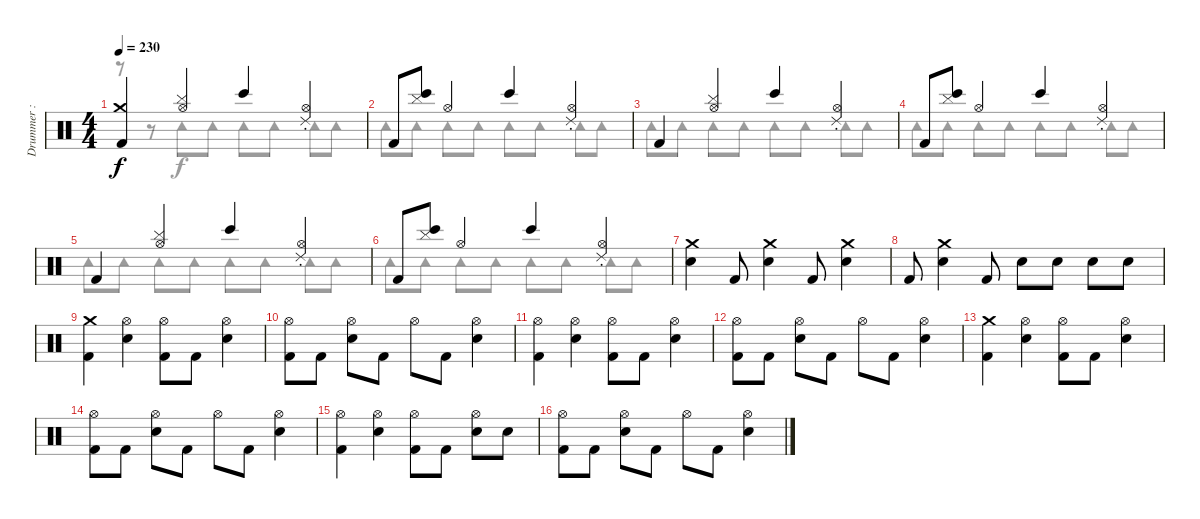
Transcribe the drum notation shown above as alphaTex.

\track ("Drummer : Tainaka Ritsu - Swan" "Drummer : ") {instrument percussion}
\staff {score}
\articulation defaults
\voice
\ts (4 4)
\tempo 230
\clef neutral
\ks c
("Crash medium (hit)" "Kick (hit) 2").4{dy f} ("Hi-Hat (open)" "Cymbal (hit)").4 "Bongo High (hit)".4 ("Hi-Hat (open)" "Ride (choke) 2").4 |
"Kick (hit) 2".8 ("Bongo High (hit)" "Cymbal (hit)").8 "Hi-Hat (open)".4 "Bongo High (hit)".4 ("Hi-Hat (open)" "Ride (choke) 2").4 |
"Kick (hit) 2".4 ("Hi-Hat (open)" "Cymbal (hit)").4 "Bongo High (hit)".4 ("Hi-Hat (open)" "Ride (choke) 2").4 |
"Kick (hit) 2".8 ("Bongo High (hit)" "Cymbal (hit)").8 "Hi-Hat (open)".4 "Bongo High (hit)".4 ("Hi-Hat (open)" "Ride (choke) 2").4 |
"Kick (hit) 2".4 ("Hi-Hat (open)" "Cymbal (hit)").4 "Bongo High (hit)".4 ("Hi-Hat (open)" "Ride (choke) 2").4 |
"Kick (hit) 2".8 ("Bongo High (hit)" "Cymbal (hit)").8 "Hi-Hat (open)".4 "Bongo High (hit)".4 ("Hi-Hat (open)" "Ride (choke) 2").4 |
("Crash medium (hit)" "Electric Snare (hit)").4 "Kick (hit) 2".8 ("Crash medium (hit)" "Electric Snare (hit)").4 "Kick (hit) 2".8 ("Crash medium (hit)" "Electric Snare (hit)").4 |
"Kick (hit) 2".8 ("Crash medium (hit)" "Electric Snare (hit)").4 "Kick (hit) 2".8 "Electric Snare (hit)".8 "Electric Snare (hit)".8 "Electric Snare (hit)".8 "Electric Snare (hit)".8 |
("Crash medium (hit)" "Kick (hit) 2").4 ("Hi-Hat (open)" "Electric Snare (hit)").4 ("Hi-Hat (open)" "Kick (hit) 2").8 "Kick (hit) 2".8 ("Hi-Hat (open)" "Electric Snare (hit)").4 |
("Hi-Hat (open)" "Kick (hit) 2").8 "Kick (hit) 2".8 ("Hi-Hat (open)" "Electric Snare (hit)").8 "Kick (hit) 2".8 "Hi-Hat (open)".8 "Kick (hit) 2".8 ("Hi-Hat (open)" "Electric Snare (hit)").4 |
("Hi-Hat (open)" "Kick (hit) 2").4 ("Hi-Hat (open)" "Electric Snare (hit)").4 ("Hi-Hat (open)" "Kick (hit) 2").8 "Kick (hit) 2".8 ("Hi-Hat (open)" "Electric Snare (hit)").4 |
("Hi-Hat (open)" "Kick (hit) 2").8 "Kick (hit) 2".8 ("Hi-Hat (open)" "Electric Snare (hit)").8 "Kick (hit) 2".8 "Hi-Hat (open)".8 "Kick (hit) 2".8 ("Hi-Hat (open)" "Electric Snare (hit)").4 |
("Crash medium (hit)" "Kick (hit) 2").4 ("Hi-Hat (open)" "Electric Snare (hit)").4 ("Hi-Hat (open)" "Kick (hit) 2").8 "Kick (hit) 2".8 ("Hi-Hat (open)" "Electric Snare (hit)").4 |
("Hi-Hat (open)" "Kick (hit) 2").8 "Kick (hit) 2".8 ("Hi-Hat (open)" "Electric Snare (hit)").8 "Kick (hit) 2".8 "Hi-Hat (open)".8 "Kick (hit) 2".8 ("Hi-Hat (open)" "Electric Snare (hit)").4 |
("Hi-Hat (open)" "Kick (hit) 2").4 ("Hi-Hat (open)" "Electric Snare (hit)").4 ("Hi-Hat (open)" "Kick (hit) 2").8 "Kick (hit) 2".8 ("Hi-Hat (open)" "Electric Snare (hit)").8 "Electric Snare (hit)".8 |
("Hi-Hat (open)" "Kick (hit) 2").8 "Kick (hit) 2".8 ("Hi-Hat (open)" "Electric Snare (hit)").8 "Kick (hit) 2".8 "Hi-Hat (open)".8 "Kick (hit) 2".8 ("Hi-Hat (open)" "Electric Snare (hit)").4
\voice
\clef neutral
\ottava regular
\simile none
\ks c
r.8{dy f} r.8 "Tambourine (hit)".8 "Tambourine (hit)".8 "Tambourine (hit)".8 "Tambourine (hit)".8 "Tambourine (hit)".8 "Tambourine (hit)".8 |
"Tambourine (hit)".8 "Tambourine (hit)".8 "Tambourine (hit)".8 "Tambourine (hit)".8 "Tambourine (hit)".8 "Tambourine (hit)".8 "Tambourine (hit)".8 "Tambourine (hit)".8 |
"Tambourine (hit)".8 "Tambourine (hit)".8 "Tambourine (hit)".8 "Tambourine (hit)".8 "Tambourine (hit)".8 "Tambourine (hit)".8 "Tambourine (hit)".8 "Tambourine (hit)".8 |
"Tambourine (hit)".8 "Tambourine (hit)".8 "Tambourine (hit)".8 "Tambourine (hit)".8 "Tambourine (hit)".8 "Tambourine (hit)".8 "Tambourine (hit)".8 "Tambourine (hit)".8 |
"Tambourine (hit)".8 "Tambourine (hit)".8 "Tambourine (hit)".8 "Tambourine (hit)".8 "Tambourine (hit)".8 "Tambourine (hit)".8 "Tambourine (hit)".8 "Tambourine (hit)".8 |
"Tambourine (hit)".8 "Tambourine (hit)".8 "Tambourine (hit)".8 "Tambourine (hit)".8 "Tambourine (hit)".8 "Tambourine (hit)".8 "Tambourine (hit)".8 "Tambourine (hit)".8 |
|
|
|
|
|
|
|
|
|
